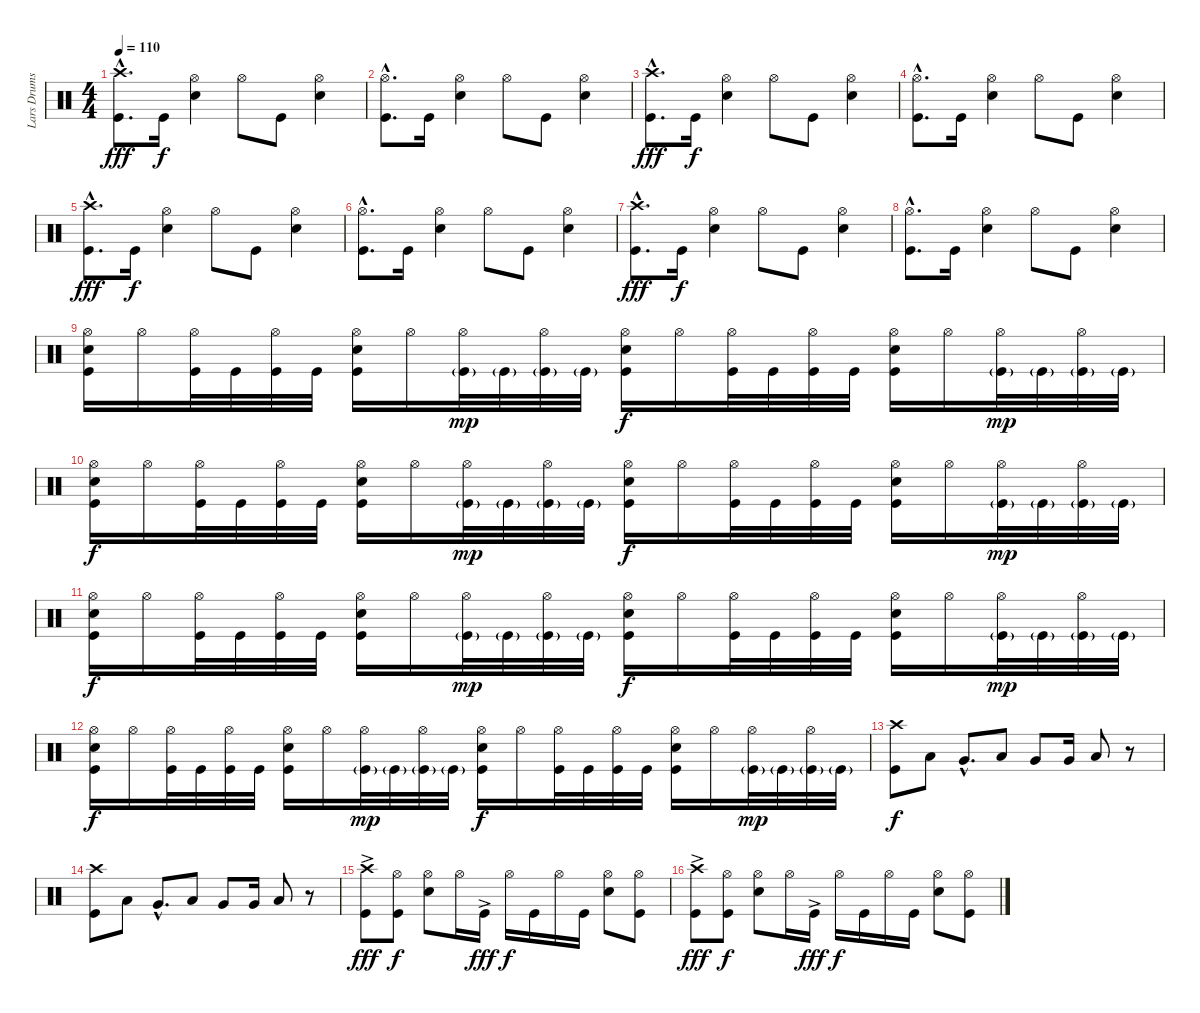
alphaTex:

\track ("Lars Drums" "Lars Drums") {instrument percussion}
\staff {score}
\articulation defaults
\ts (4 4)
\tempo 110
\clef neutral
\ks c
("Crash high (hit)"{hac} "Kick (hit)"{hac}).8{d dy fff} "Kick (hit)".16{dy f} ("Hi-Hat (open)" "Electric Snare (hit)").4 "Hi-Hat (open)".8 "Kick (hit)".8 ("Hi-Hat (open)" "Electric Snare (hit)").4 |
("Hi-Hat (open)"{hac} "Kick (hit)"{hac}).8{d} "Kick (hit)".16 ("Hi-Hat (open)" "Electric Snare (hit)").4 "Hi-Hat (open)".8 "Kick (hit)".8 ("Hi-Hat (open)" "Electric Snare (hit)").4 |
("Crash high (hit)"{hac} "Kick (hit)"{hac}).8{d dy fff} "Kick (hit)".16{dy f} ("Hi-Hat (open)" "Electric Snare (hit)").4 "Hi-Hat (open)".8 "Kick (hit)".8 ("Hi-Hat (open)" "Electric Snare (hit)").4 |
("Hi-Hat (open)"{hac} "Kick (hit)"{hac}).8{d} "Kick (hit)".16 ("Hi-Hat (open)" "Electric Snare (hit)").4 "Hi-Hat (open)".8 "Kick (hit)".8 ("Hi-Hat (open)" "Electric Snare (hit)").4 |
("Crash high (hit)"{hac} "Kick (hit)"{hac}).8{d dy fff} "Kick (hit)".16{dy f} ("Hi-Hat (open)" "Electric Snare (hit)").4 "Hi-Hat (open)".8 "Kick (hit)".8 ("Hi-Hat (open)" "Electric Snare (hit)").4 |
("Hi-Hat (open)"{hac} "Kick (hit)"{hac}).8{d} "Kick (hit)".16 ("Hi-Hat (open)" "Electric Snare (hit)").4 "Hi-Hat (open)".8 "Kick (hit)".8 ("Hi-Hat (open)" "Electric Snare (hit)").4 |
("Crash high (hit)"{hac} "Kick (hit)"{hac}).8{d dy fff} "Kick (hit)".16{dy f} ("Hi-Hat (open)" "Electric Snare (hit)").4 "Hi-Hat (open)".8 "Kick (hit)".8 ("Hi-Hat (open)" "Electric Snare (hit)").4 |
("Hi-Hat (open)"{hac} "Kick (hit)"{hac}).8{d} "Kick (hit)".16 ("Hi-Hat (open)" "Electric Snare (hit)").4 "Hi-Hat (open)".8 "Kick (hit)".8 ("Hi-Hat (open)" "Electric Snare (hit)").4 |
("Hi-Hat (open)" "Electric Snare (hit)" "Kick (hit)").16 "Hi-Hat (open)".16 ("Hi-Hat (open)" "Kick (hit)").32 "Kick (hit)".32 ("Hi-Hat (open)" "Kick (hit)").32 "Kick (hit)".32 ("Hi-Hat (open)" "Electric Snare (hit)" "Kick (hit)").16 "Hi-Hat (open)".16 ("Hi-Hat (open)" "Kick (hit)"{g}).32{dy mp} "Kick (hit)"{g}.32 ("Hi-Hat (open)" "Kick (hit)"{g}).32 "Kick (hit)"{g}.32 ("Hi-Hat (open)" "Electric Snare (hit)" "Kick (hit)").16{dy f} "Hi-Hat (open)".16 ("Hi-Hat (open)" "Kick (hit)").32 "Kick (hit)".32 ("Hi-Hat (open)" "Kick (hit)").32 "Kick (hit)".32 ("Hi-Hat (open)" "Electric Snare (hit)" "Kick (hit)").16 "Hi-Hat (open)".16 ("Hi-Hat (open)" "Kick (hit)"{g}).32{dy mp} "Kick (hit)"{g}.32 ("Hi-Hat (open)" "Kick (hit)"{g}).32 "Kick (hit)"{g}.32 |
("Hi-Hat (open)" "Electric Snare (hit)" "Kick (hit)").16{dy f} "Hi-Hat (open)".16 ("Hi-Hat (open)" "Kick (hit)").32 "Kick (hit)".32 ("Hi-Hat (open)" "Kick (hit)").32 "Kick (hit)".32 ("Hi-Hat (open)" "Electric Snare (hit)" "Kick (hit)").16 "Hi-Hat (open)".16 ("Hi-Hat (open)" "Kick (hit)"{g}).32{dy mp} "Kick (hit)"{g}.32 ("Hi-Hat (open)" "Kick (hit)"{g}).32 "Kick (hit)"{g}.32 ("Hi-Hat (open)" "Electric Snare (hit)" "Kick (hit)").16{dy f} "Hi-Hat (open)".16 ("Hi-Hat (open)" "Kick (hit)").32 "Kick (hit)".32 ("Hi-Hat (open)" "Kick (hit)").32 "Kick (hit)".32 ("Hi-Hat (open)" "Electric Snare (hit)" "Kick (hit)").16 "Hi-Hat (open)".16 ("Hi-Hat (open)" "Kick (hit)"{g}).32{dy mp} "Kick (hit)"{g}.32 ("Hi-Hat (open)" "Kick (hit)"{g}).32 "Kick (hit)"{g}.32 |
("Hi-Hat (open)" "Electric Snare (hit)" "Kick (hit)").16{dy f} "Hi-Hat (open)".16 ("Hi-Hat (open)" "Kick (hit)").32 "Kick (hit)".32 ("Hi-Hat (open)" "Kick (hit)").32 "Kick (hit)".32 ("Hi-Hat (open)" "Electric Snare (hit)" "Kick (hit)").16 "Hi-Hat (open)".16 ("Hi-Hat (open)" "Kick (hit)"{g}).32{dy mp} "Kick (hit)"{g}.32 ("Hi-Hat (open)" "Kick (hit)"{g}).32 "Kick (hit)"{g}.32 ("Hi-Hat (open)" "Electric Snare (hit)" "Kick (hit)").16{dy f} "Hi-Hat (open)".16 ("Hi-Hat (open)" "Kick (hit)").32 "Kick (hit)".32 ("Hi-Hat (open)" "Kick (hit)").32 "Kick (hit)".32 ("Hi-Hat (open)" "Electric Snare (hit)" "Kick (hit)").16 "Hi-Hat (open)".16 ("Hi-Hat (open)" "Kick (hit)"{g}).32{dy mp} "Kick (hit)"{g}.32 ("Hi-Hat (open)" "Kick (hit)"{g}).32 "Kick (hit)"{g}.32 |
("Hi-Hat (open)" "Electric Snare (hit)" "Kick (hit)").16{dy f} "Hi-Hat (open)".16 ("Hi-Hat (open)" "Kick (hit)").32 "Kick (hit)".32 ("Hi-Hat (open)" "Kick (hit)").32 "Kick (hit)".32 ("Hi-Hat (open)" "Electric Snare (hit)" "Kick (hit)").16 "Hi-Hat (open)".16 ("Hi-Hat (open)" "Kick (hit)"{g}).32{dy mp} "Kick (hit)"{g}.32 ("Hi-Hat (open)" "Kick (hit)"{g}).32 "Kick (hit)"{g}.32 ("Hi-Hat (open)" "Electric Snare (hit)" "Kick (hit)").16{dy f} "Hi-Hat (open)".16 ("Hi-Hat (open)" "Kick (hit)").32 "Kick (hit)".32 ("Hi-Hat (open)" "Kick (hit)").32 "Kick (hit)".32 ("Hi-Hat (open)" "Electric Snare (hit)" "Kick (hit)").16 "Hi-Hat (open)".16 ("Hi-Hat (open)" "Kick (hit)"{g}).32{dy mp} "Kick (hit)"{g}.32 ("Hi-Hat (open)" "Kick (hit)"{g}).32 "Kick (hit)"{g}.32 |
("Crash high (hit)" "Kick (hit)").8{dy f} "Low Floor Tom (hit)".8 "Very Low Tom (hit)"{hac}.8{d} "Low Floor Tom (hit)".8 "Very Low Tom (hit)".8 "Very Low Tom (hit)".16 "Low Floor Tom (hit)".8 r.8 |
("Crash high (hit)" "Kick (hit)").8 "Low Floor Tom (hit)".8 "Very Low Tom (hit)"{hac}.8{d} "Low Floor Tom (hit)".8 "Very Low Tom (hit)".8 "Very Low Tom (hit)".16 "Low Floor Tom (hit)".8 r.8 |
("Crash high (hit)" "Kick (hit)"{ac}).8{dy fff} ("Hi-Hat (open)" "Kick (hit)").8{dy f} ("Hi-Hat (open)" "Electric Snare (hit)").8 "Hi-Hat (open)".16 "Kick (hit)"{ac}.16{dy fff} "Hi-Hat (open)".16{dy f} "Kick (hit)".16 "Hi-Hat (open)".16 "Kick (hit)".16 ("Hi-Hat (open)" "Electric Snare (hit)").8 ("Hi-Hat (open)" "Kick (hit)").8 |
("Crash high (hit)" "Kick (hit)"{ac}).8{dy fff} ("Hi-Hat (open)" "Kick (hit)").8{dy f} ("Hi-Hat (open)" "Electric Snare (hit)").8 "Hi-Hat (open)".16 "Kick (hit)"{ac}.16{dy fff} "Hi-Hat (open)".16{dy f} "Kick (hit)".16 "Hi-Hat (open)".16 "Kick (hit)".16 ("Hi-Hat (open)" "Electric Snare (hit)").8 ("Hi-Hat (open)" "Kick (hit)").8
